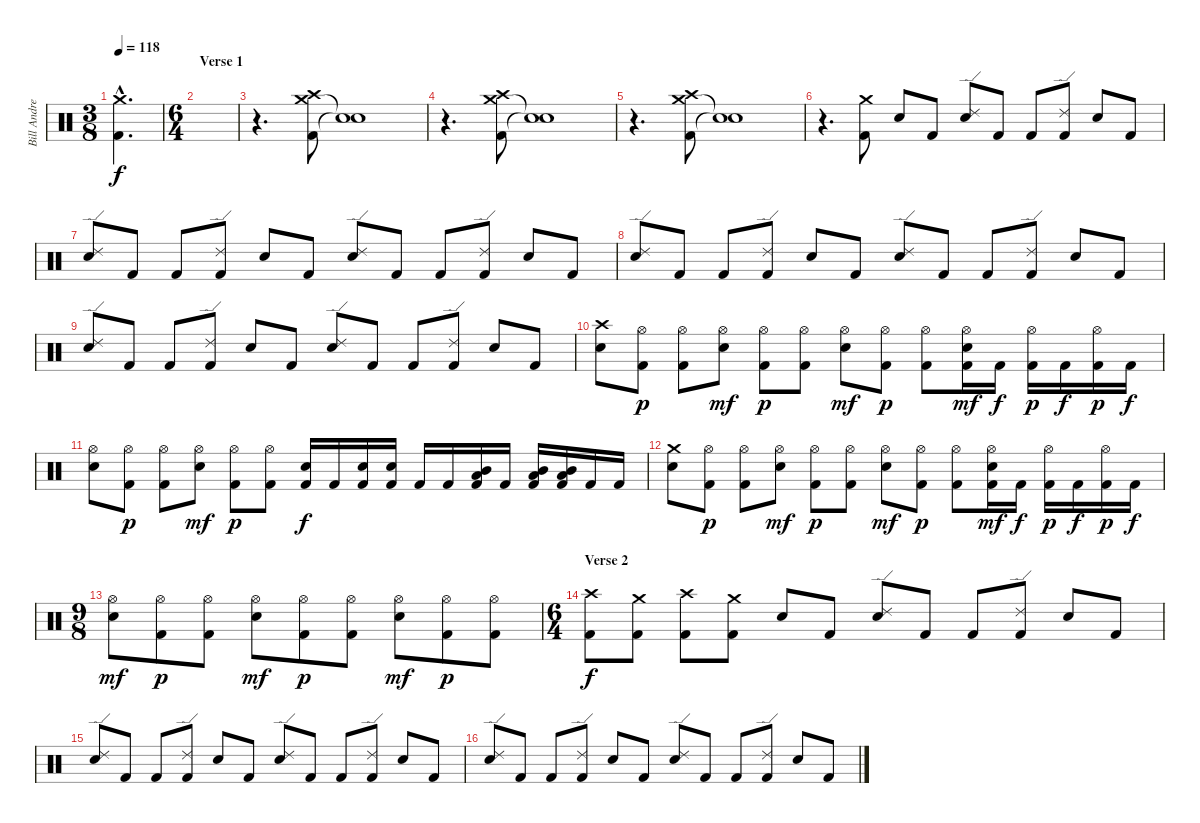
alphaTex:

\track ("Bill Andrews" "Bill Andre") {instrument percussion}
\staff {score}
\articulation defaults
\ts (3 8)
\tempo 118
\clef neutral
\ks c
("Kick (hit) 2"{hac} "Crash medium (hit)"{hac}).4{d dy f} |
\ts (6 4)
\section ("" "Verse 1")
|
r.4{d} ("Kick (hit) 2" "Crash medium (hit)" "Crash high (hit)").8 ("Snare (hit)"{t} "Snare (hit)"{t}).1 |
r.4{d} ("Kick (hit) 2" "Crash medium (hit)" "Crash high (hit)").8 ("Snare (hit)"{t} "Snare (hit)"{t}).1 |
r.4{d} ("Kick (hit) 2" "Crash medium (hit)" "Crash high (hit)").8 ("Snare (hit)"{t} "Snare (hit)"{t}).1 |
r.4{d} ("Kick (hit) 2" "Crash medium (hit)").8 "Snare (hit) 2".8 "Kick (hit) 2".8 ("Ride (edge) 2" "Snare (hit) 2").8 "Kick (hit) 2".8 "Kick (hit) 2".8 ("Kick (hit) 2" "Ride (edge) 2").8 "Snare (hit) 2".8 "Kick (hit) 2".8 |
("Ride (edge) 2" "Snare (hit) 2").8 "Kick (hit) 2".8 "Kick (hit) 2".8 ("Kick (hit) 2" "Ride (edge) 2").8 "Snare (hit) 2".8 "Kick (hit) 2".8 ("Ride (edge) 2" "Snare (hit) 2").8 "Kick (hit) 2".8 "Kick (hit) 2".8 ("Kick (hit) 2" "Ride (edge) 2").8 "Snare (hit) 2".8 "Kick (hit) 2".8 |
("Ride (edge) 2" "Snare (hit) 2").8 "Kick (hit) 2".8 "Kick (hit) 2".8 ("Kick (hit) 2" "Ride (edge) 2").8 "Snare (hit) 2".8 "Kick (hit) 2".8 ("Ride (edge) 2" "Snare (hit) 2").8 "Kick (hit) 2".8 "Kick (hit) 2".8 ("Kick (hit) 2" "Ride (edge) 2").8 "Snare (hit) 2".8 "Kick (hit) 2".8 |
("Ride (edge) 2" "Snare (hit) 2").8 "Kick (hit) 2".8 "Kick (hit) 2".8 ("Kick (hit) 2" "Ride (edge) 2").8 "Snare (hit) 2".8 "Kick (hit) 2".8 ("Ride (edge) 2" "Snare (hit) 2").8 "Kick (hit) 2".8 "Kick (hit) 2".8 ("Kick (hit) 2" "Ride (edge) 2").8 "Snare (hit) 2".8 "Kick (hit) 2".8 |
("Crash high (hit)" "Snare (hit) 2").8 ("Kick (hit) 2" "Hi-Hat (open)").8{dy p} ("Kick (hit) 2" "Hi-Hat (open)").8 ("Hi-Hat (open)" "Snare (hit) 2").8{dy mf} ("Kick (hit) 2" "Hi-Hat (open)").8{dy p} ("Kick (hit) 2" "Hi-Hat (open)").8 ("Hi-Hat (open)" "Snare (hit) 2").8{dy mf} ("Kick (hit) 2" "Hi-Hat (open)").8{dy p} ("Kick (hit) 2" "Hi-Hat (open)").8 ("Kick (hit) 2" "Hi-Hat (open)" "Snare (hit) 2").16{dy mf} "Kick (hit) 2".16{dy f} ("Kick (hit) 2" "Hi-Hat (open)").16{dy p} "Kick (hit) 2".16{dy f} ("Kick (hit) 2" "Hi-Hat (open)").16{dy p} "Kick (hit) 2".16{dy f} |
("Hi-Hat (open)" "Snare (hit) 2").8 ("Kick (hit) 2" "Hi-Hat (open)").8{dy p} ("Kick (hit) 2" "Hi-Hat (open)").8 ("Hi-Hat (open)" "Snare (hit) 2").8{dy mf} ("Kick (hit) 2" "Hi-Hat (open)").8{dy p} ("Kick (hit) 2" "Hi-Hat (open)").8 ("Kick (hit) 2" "Snare (hit) 2").16{dy f} "Kick (hit) 2".16 ("Kick (hit) 2" "Snare (hit) 2").16 ("Kick (hit) 2" "Snare (hit) 2").16 "Kick (hit) 2".16 "Kick (hit) 2".16 ("Kick (hit) 2" "Mid Tom (hit)" "Low Tom (hit)").16 "Kick (hit) 2".16 ("Kick (hit) 2" "Mid Tom (hit)" "Low Tom (hit)").16 ("Kick (hit) 2" "Mid Tom (hit)" "Low Tom (hit)").16 "Kick (hit) 2".16 "Kick (hit) 2".16 |
("Crash medium (hit)" "Snare (hit) 2").8 ("Kick (hit) 2" "Hi-Hat (open)").8{dy p} ("Kick (hit) 2" "Hi-Hat (open)").8 ("Hi-Hat (open)" "Snare (hit) 2").8{dy mf} ("Kick (hit) 2" "Hi-Hat (open)").8{dy p} ("Kick (hit) 2" "Hi-Hat (open)").8 ("Hi-Hat (open)" "Snare (hit) 2").8{dy mf} ("Kick (hit) 2" "Hi-Hat (open)").8{dy p} ("Kick (hit) 2" "Hi-Hat (open)").8 ("Kick (hit) 2" "Hi-Hat (open)" "Snare (hit) 2").16{dy mf} "Kick (hit) 2".16{dy f} ("Kick (hit) 2" "Hi-Hat (open)").16{dy p} "Kick (hit) 2".16{dy f} ("Kick (hit) 2" "Hi-Hat (open)").16{dy p} "Kick (hit) 2".16{dy f} |
\ts (9 8)
("Hi-Hat (open)" "Snare (hit) 2").8{dy mf} ("Kick (hit) 2" "Hi-Hat (open)").8{dy p} ("Kick (hit) 2" "Hi-Hat (open)").8 ("Hi-Hat (open)" "Snare (hit) 2").8{dy mf} ("Kick (hit) 2" "Hi-Hat (open)").8{dy p} ("Kick (hit) 2" "Hi-Hat (open)").8 ("Hi-Hat (open)" "Snare (hit) 2").8{dy mf} ("Kick (hit) 2" "Hi-Hat (open)").8{dy p} ("Kick (hit) 2" "Hi-Hat (open)").8 |
\ts (6 4)
\section ("" "Verse 2")
("Kick (hit) 2" "Crash high (hit)").8{dy f} ("Kick (hit) 2" "Crash medium (hit)").8 ("Kick (hit) 2" "Crash high (hit)").8 ("Kick (hit) 2" "Crash medium (hit)").8 "Snare (hit) 2".8 "Kick (hit) 2".8 ("Ride (edge) 2" "Snare (hit) 2").8 "Kick (hit) 2".8 "Kick (hit) 2".8 ("Kick (hit) 2" "Ride (edge) 2").8 "Snare (hit) 2".8 "Kick (hit) 2".8 |
("Ride (edge) 2" "Snare (hit) 2").8 "Kick (hit) 2".8 "Kick (hit) 2".8 ("Kick (hit) 2" "Ride (edge) 2").8 "Snare (hit) 2".8 "Kick (hit) 2".8 ("Ride (edge) 2" "Snare (hit) 2").8 "Kick (hit) 2".8 "Kick (hit) 2".8 ("Kick (hit) 2" "Ride (edge) 2").8 "Snare (hit) 2".8 "Kick (hit) 2".8 |
("Ride (edge) 2" "Snare (hit) 2").8 "Kick (hit) 2".8 "Kick (hit) 2".8 ("Kick (hit) 2" "Ride (edge) 2").8 "Snare (hit) 2".8 "Kick (hit) 2".8 ("Ride (edge) 2" "Snare (hit) 2").8 "Kick (hit) 2".8 "Kick (hit) 2".8 ("Kick (hit) 2" "Ride (edge) 2").8 "Snare (hit) 2".8 "Kick (hit) 2".8
